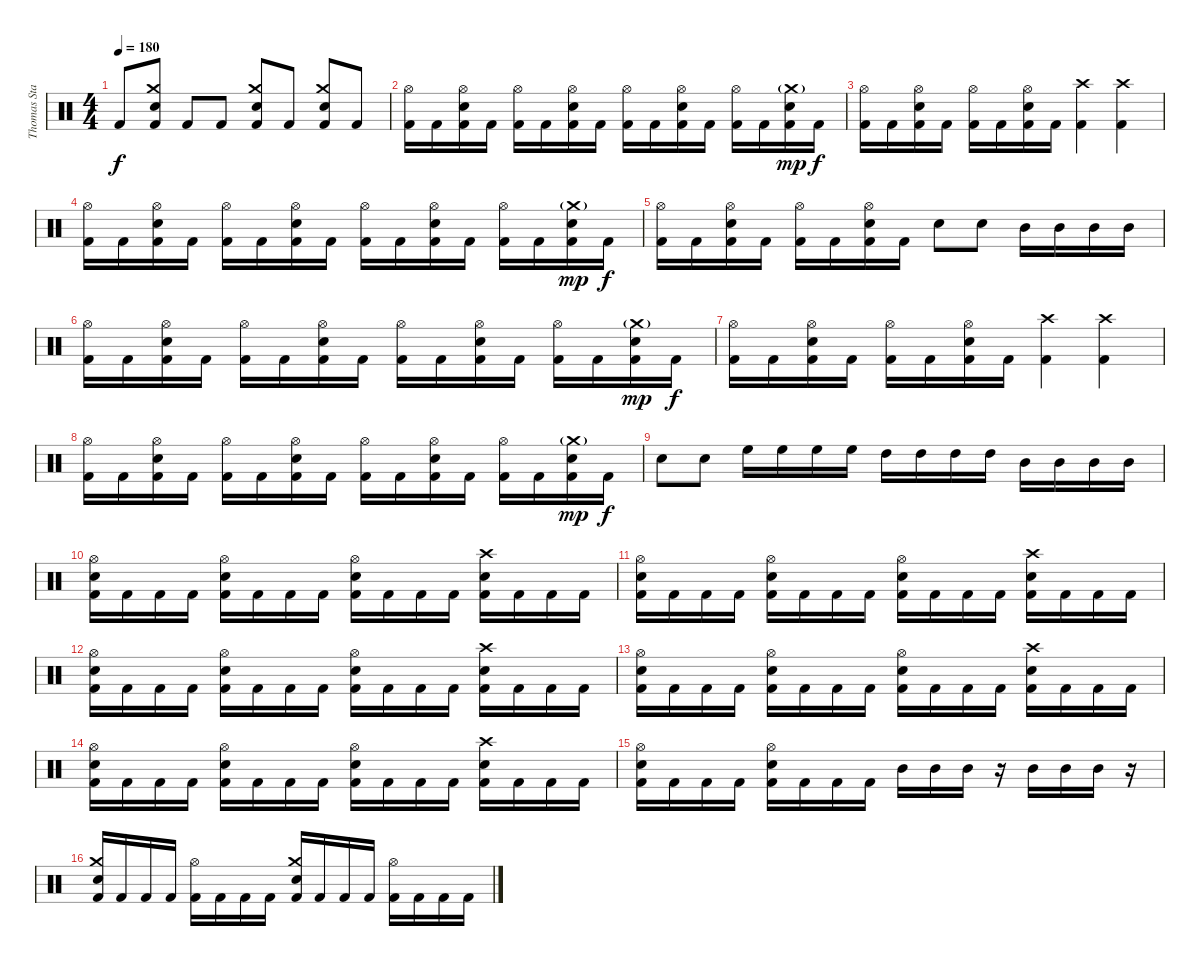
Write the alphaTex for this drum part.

\track ("Thomas Stauch" "Thomas Sta") {instrument percussion}
\staff {score}
\articulation defaults
\ts (4 4)
\tempo 180
\clef neutral
\ks c "Kick (hit) 2".8{dy f}
("Crash medium (hit)" "Electric Snare (hit)" "Kick (hit) 2").8 "Kick (hit) 2".8 "Kick (hit) 2".8 ("Crash medium (hit)" "Electric Snare (hit)" "Kick (hit) 2").8 "Kick (hit) 2".8 ("Crash medium (hit)" "Electric Snare (hit)" "Kick (hit) 2").8 "Kick (hit) 2".8 |
("Hi-Hat (open)" "Kick (hit) 2").16 "Kick (hit) 2".16 ("Hi-Hat (open)" "Electric Snare (hit)" "Kick (hit) 2").16 "Kick (hit) 2".16 ("Hi-Hat (open)" "Kick (hit) 2").16 "Kick (hit) 2".16 ("Hi-Hat (open)" "Electric Snare (hit)" "Kick (hit) 2").16 "Kick (hit) 2".16 ("Hi-Hat (open)" "Kick (hit) 2").16 "Kick (hit) 2".16 ("Hi-Hat (open)" "Electric Snare (hit)" "Kick (hit) 2").16 "Kick (hit) 2".16 ("Hi-Hat (open)" "Kick (hit) 2").16 "Kick (hit) 2".16 ("Crash medium (hit)"{g} "Electric Snare (hit)" "Kick (hit) 2").16{dy mp} "Kick (hit) 2".16{dy f} |
("Hi-Hat (open)" "Kick (hit) 2").16 "Kick (hit) 2".16 ("Hi-Hat (open)" "Electric Snare (hit)" "Kick (hit) 2").16 "Kick (hit) 2".16 ("Hi-Hat (open)" "Kick (hit) 2").16 "Kick (hit) 2".16 ("Hi-Hat (open)" "Electric Snare (hit)" "Kick (hit) 2").16 "Kick (hit) 2".16 ("Crash high (hit)" "Kick (hit) 2").4 ("Crash high (hit)" "Kick (hit) 2").4 |
("Hi-Hat (open)" "Kick (hit) 2").16 "Kick (hit) 2".16 ("Hi-Hat (open)" "Electric Snare (hit)" "Kick (hit) 2").16 "Kick (hit) 2".16 ("Hi-Hat (open)" "Kick (hit) 2").16 "Kick (hit) 2".16 ("Hi-Hat (open)" "Electric Snare (hit)" "Kick (hit) 2").16 "Kick (hit) 2".16 ("Hi-Hat (open)" "Kick (hit) 2").16 "Kick (hit) 2".16 ("Hi-Hat (open)" "Electric Snare (hit)" "Kick (hit) 2").16 "Kick (hit) 2".16 ("Hi-Hat (open)" "Kick (hit) 2").16 "Kick (hit) 2".16 ("Crash medium (hit)"{g} "Electric Snare (hit)" "Kick (hit) 2").16{dy mp} "Kick (hit) 2".16{dy f} |
("Hi-Hat (open)" "Kick (hit) 2").16 "Kick (hit) 2".16 ("Hi-Hat (open)" "Electric Snare (hit)" "Kick (hit) 2").16 "Kick (hit) 2".16 ("Hi-Hat (open)" "Kick (hit) 2").16 "Kick (hit) 2".16 ("Hi-Hat (open)" "Electric Snare (hit)" "Kick (hit) 2").16 "Kick (hit) 2".16 "Electric Snare (hit)".8 "Electric Snare (hit)".8 "Mid Tom (hit)".16 "Mid Tom (hit)".16 "Mid Tom (hit)".16 "Mid Tom (hit)".16 |
("Hi-Hat (open)" "Kick (hit) 2").16 "Kick (hit) 2".16 ("Hi-Hat (open)" "Electric Snare (hit)" "Kick (hit) 2").16 "Kick (hit) 2".16 ("Hi-Hat (open)" "Kick (hit) 2").16 "Kick (hit) 2".16 ("Hi-Hat (open)" "Electric Snare (hit)" "Kick (hit) 2").16 "Kick (hit) 2".16 ("Hi-Hat (open)" "Kick (hit) 2").16 "Kick (hit) 2".16 ("Hi-Hat (open)" "Electric Snare (hit)" "Kick (hit) 2").16 "Kick (hit) 2".16 ("Hi-Hat (open)" "Kick (hit) 2").16 "Kick (hit) 2".16 ("Crash medium (hit)"{g} "Electric Snare (hit)" "Kick (hit) 2").16{dy mp} "Kick (hit) 2".16{dy f} |
("Hi-Hat (open)" "Kick (hit) 2").16 "Kick (hit) 2".16 ("Hi-Hat (open)" "Electric Snare (hit)" "Kick (hit) 2").16 "Kick (hit) 2".16 ("Hi-Hat (open)" "Kick (hit) 2").16 "Kick (hit) 2".16 ("Hi-Hat (open)" "Electric Snare (hit)" "Kick (hit) 2").16 "Kick (hit) 2".16 ("Crash high (hit)" "Kick (hit) 2").4 ("Crash high (hit)" "Kick (hit) 2").4 |
("Hi-Hat (open)" "Kick (hit) 2").16 "Kick (hit) 2".16 ("Hi-Hat (open)" "Electric Snare (hit)" "Kick (hit) 2").16 "Kick (hit) 2".16 ("Hi-Hat (open)" "Kick (hit) 2").16 "Kick (hit) 2".16 ("Hi-Hat (open)" "Electric Snare (hit)" "Kick (hit) 2").16 "Kick (hit) 2".16 ("Hi-Hat (open)" "Kick (hit) 2").16 "Kick (hit) 2".16 ("Hi-Hat (open)" "Electric Snare (hit)" "Kick (hit) 2").16 "Kick (hit) 2".16 ("Hi-Hat (open)" "Kick (hit) 2").16 "Kick (hit) 2".16 ("Crash medium (hit)"{g} "Electric Snare (hit)" "Kick (hit) 2").16{dy mp} "Kick (hit) 2".16{dy f} |
"Electric Snare (hit)".8 "Electric Snare (hit)".8 "High Floor Tom (hit)".16 "High Floor Tom (hit)".16 "High Floor Tom (hit)".16 "High Floor Tom (hit)".16 "High Tom (hit)".16 "High Tom (hit)".16 "High Tom (hit)".16 "High Tom (hit)".16 "Mid Tom (hit)".16 "Mid Tom (hit)".16 "Mid Tom (hit)".16 "Mid Tom (hit)".16 |
("Hi-Hat (open)" "Electric Snare (hit)" "Kick (hit) 2").16 "Kick (hit) 2".16 "Kick (hit) 2".16 "Kick (hit) 2".16 ("Hi-Hat (open)" "Electric Snare (hit)" "Kick (hit) 2").16 "Kick (hit) 2".16 "Kick (hit) 2".16 "Kick (hit) 2".16 ("Hi-Hat (open)" "Electric Snare (hit)" "Kick (hit) 2").16 "Kick (hit) 2".16 "Kick (hit) 2".16 "Kick (hit) 2".16 ("Crash high (hit)" "Electric Snare (hit)" "Kick (hit) 2").16 "Kick (hit) 2".16 "Kick (hit) 2".16 "Kick (hit) 2".16 |
("Hi-Hat (open)" "Electric Snare (hit)" "Kick (hit) 2").16 "Kick (hit) 2".16 "Kick (hit) 2".16 "Kick (hit) 2".16 ("Hi-Hat (open)" "Electric Snare (hit)" "Kick (hit) 2").16 "Kick (hit) 2".16 "Kick (hit) 2".16 "Kick (hit) 2".16 ("Hi-Hat (open)" "Electric Snare (hit)" "Kick (hit) 2").16 "Kick (hit) 2".16 "Kick (hit) 2".16 "Kick (hit) 2".16 ("Crash high (hit)" "Electric Snare (hit)" "Kick (hit) 2").16 "Kick (hit) 2".16 "Kick (hit) 2".16 "Kick (hit) 2".16 |
("Hi-Hat (open)" "Electric Snare (hit)" "Kick (hit) 2").16 "Kick (hit) 2".16 "Kick (hit) 2".16 "Kick (hit) 2".16 ("Hi-Hat (open)" "Electric Snare (hit)" "Kick (hit) 2").16 "Kick (hit) 2".16 "Kick (hit) 2".16 "Kick (hit) 2".16 ("Hi-Hat (open)" "Electric Snare (hit)" "Kick (hit) 2").16 "Kick (hit) 2".16 "Kick (hit) 2".16 "Kick (hit) 2".16 ("Crash high (hit)" "Electric Snare (hit)" "Kick (hit) 2").16 "Kick (hit) 2".16 "Kick (hit) 2".16 "Kick (hit) 2".16 |
("Hi-Hat (open)" "Electric Snare (hit)" "Kick (hit) 2").16 "Kick (hit) 2".16 "Kick (hit) 2".16 "Kick (hit) 2".16 ("Hi-Hat (open)" "Electric Snare (hit)" "Kick (hit) 2").16 "Kick (hit) 2".16 "Kick (hit) 2".16 "Kick (hit) 2".16 ("Hi-Hat (open)" "Electric Snare (hit)" "Kick (hit) 2").16 "Kick (hit) 2".16 "Kick (hit) 2".16 "Kick (hit) 2".16 ("Crash high (hit)" "Electric Snare (hit)" "Kick (hit) 2").16 "Kick (hit) 2".16 "Kick (hit) 2".16 "Kick (hit) 2".16 |
("Hi-Hat (open)" "Electric Snare (hit)" "Kick (hit) 2").16 "Kick (hit) 2".16 "Kick (hit) 2".16 "Kick (hit) 2".16 ("Hi-Hat (open)" "Electric Snare (hit)" "Kick (hit) 2").16 "Kick (hit) 2".16 "Kick (hit) 2".16 "Kick (hit) 2".16 ("Hi-Hat (open)" "Electric Snare (hit)" "Kick (hit) 2").16 "Kick (hit) 2".16 "Kick (hit) 2".16 "Kick (hit) 2".16 ("Crash high (hit)" "Electric Snare (hit)" "Kick (hit) 2").16 "Kick (hit) 2".16 "Kick (hit) 2".16 "Kick (hit) 2".16 |
("Hi-Hat (open)" "Electric Snare (hit)" "Kick (hit) 2").16 "Kick (hit) 2".16 "Kick (hit) 2".16 "Kick (hit) 2".16 ("Hi-Hat (open)" "Electric Snare (hit)" "Kick (hit) 2").16 "Kick (hit) 2".16 "Kick (hit) 2".16 "Kick (hit) 2".16 "Mid Tom (hit)".16 "Mid Tom (hit)".16 "Mid Tom (hit)".16 r.16 "Mid Tom (hit)".16 "Mid Tom (hit)".16 "Mid Tom (hit)".16 r.16 |
("Crash medium (hit)" "Electric Snare (hit)" "Kick (hit) 2").16 "Kick (hit) 2".16 "Kick (hit) 2".16 "Kick (hit) 2".16 ("Hi-Hat (open)" "Kick (hit) 2").16 "Kick (hit) 2".16 "Kick (hit) 2".16 "Kick (hit) 2".16 ("Crash medium (hit)" "Electric Snare (hit)" "Kick (hit) 2").16 "Kick (hit) 2".16 "Kick (hit) 2".16 "Kick (hit) 2".16 ("Hi-Hat (open)" "Kick (hit) 2").16 "Kick (hit) 2".16 "Kick (hit) 2".16 "Kick (hit) 2".16
